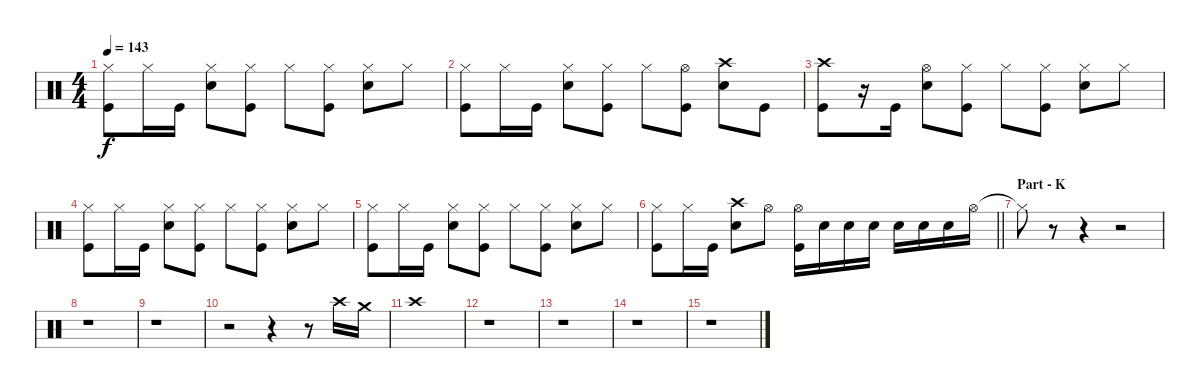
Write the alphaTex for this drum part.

\track "" {instrument percussion}
\staff {score}
\articulation defaults
\ts (4 4)
\tempo 143
\clef neutral
\ks c
("Hi-Hat (closed)" "Kick (hit)").8{dy f} "Hi-Hat (closed)".16 "Kick (hit)".16 ("Hi-Hat (closed)" "Snare (hit) 2").8 ("Hi-Hat (closed)" "Kick (hit)").8 "Hi-Hat (closed)".8 ("Hi-Hat (closed)" "Kick (hit)").8 ("Hi-Hat (closed)" "Snare (hit) 2").8 "Hi-Hat (closed)".8 |
("Hi-Hat (closed)" "Kick (hit)").8 "Hi-Hat (closed)".16 "Kick (hit)".16 ("Hi-Hat (closed)" "Snare (hit) 2").8 ("Hi-Hat (closed)" "Kick (hit)").8 "Hi-Hat (closed)".8 ("Hi-Hat (open)" "Kick (hit)").8 ("Crash high (hit)" "Snare (hit) 2").8 "Kick (hit)".8 |
("Crash high (hit)" "Kick (hit)").8{volume 14} r.16 "Kick (hit)".16 ("Hi-Hat (open)" "Snare (hit) 2").8 ("Hi-Hat (closed)" "Kick (hit)").8 "Hi-Hat (closed)".8 ("Hi-Hat (closed)" "Kick (hit)").8 ("Hi-Hat (closed)" "Snare (hit) 2").8 "Hi-Hat (closed)".8 |
("Hi-Hat (closed)" "Kick (hit)").8 "Hi-Hat (closed)".16 "Kick (hit)".16 ("Hi-Hat (closed)" "Snare (hit) 2").8 ("Hi-Hat (closed)" "Kick (hit)").8 "Hi-Hat (closed)".8 ("Hi-Hat (closed)" "Kick (hit)").8 ("Hi-Hat (closed)" "Snare (hit) 2").8 "Hi-Hat (closed)".8 |
("Hi-Hat (closed)" "Kick (hit)").8 "Hi-Hat (closed)".16 "Kick (hit)".16 ("Hi-Hat (closed)" "Snare (hit) 2").8 ("Hi-Hat (closed)" "Kick (hit)").8 "Hi-Hat (closed)".8 ("Hi-Hat (closed)" "Kick (hit)").8 ("Hi-Hat (closed)" "Snare (hit) 2").8 "Hi-Hat (closed)".8 |
\barLineRight lightlight
("Hi-Hat (closed)" "Kick (hit)").8 "Hi-Hat (closed)".16 "Kick (hit)".16 ("Crash high (hit)" "Snare (hit) 2").8 "Hi-Hat (open)".8 ("Hi-Hat (open)" "Kick (hit)").16 "Snare (hit) 2".16 "Snare (hit) 2".16 "Snare (hit) 2".16 "Snare (hit) 2".16 "Snare (hit) 2".16 "Snare (hit) 2".16 "Hi-Hat (open)".16 |
\section ("" "Part - K")
"Hi-Hat (closed)"{t}.8 r.8 r.4 r.2 |
r.1 |
r.1 |
r.2 r.4 r.8 "Crash high (hit)".16 "Crash medium (hit)".16 |
"Crash high (hit)".1 |
r.1 |
r.1 |
r.1 |
r.1
